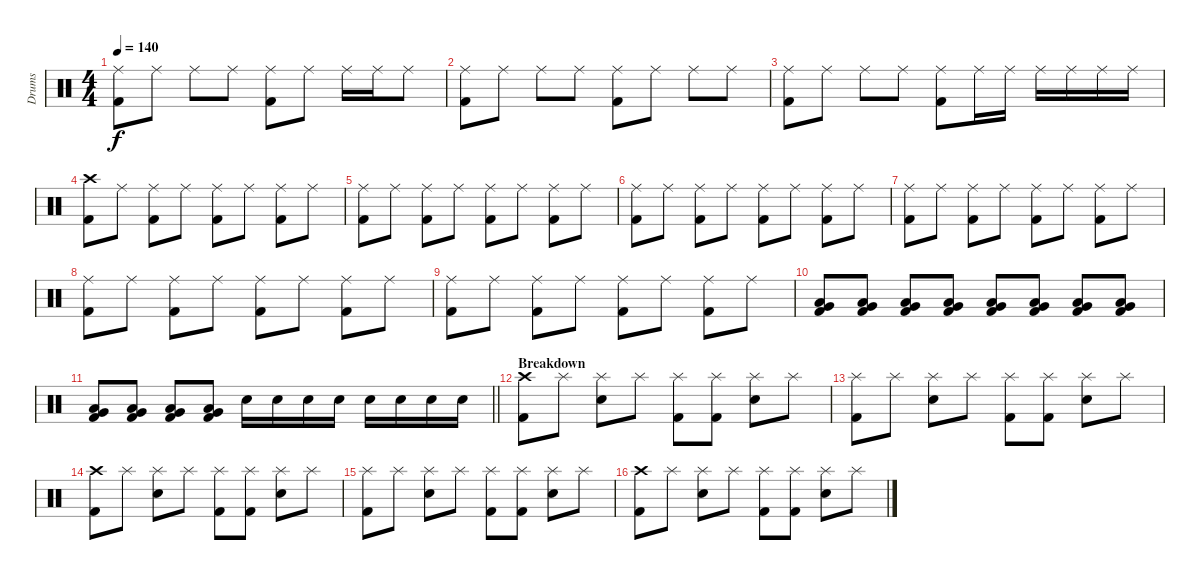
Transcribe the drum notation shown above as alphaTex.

\track ("Drums" "Drums") {instrument percussion}
\staff {score}
\articulation defaults
\ts (4 4)
\tempo 140
\clef neutral
\ks c
("Ride (middle)" "Kick (hit) 2").8{dy f} "Ride (middle)".8 "Ride (middle)".8 "Ride (middle)".8 ("Ride (middle)" "Kick (hit) 2").8 "Ride (middle)".8 "Ride (middle)".16 "Ride (middle)".16 "Ride (middle)".8 |
("Ride (middle)" "Kick (hit) 2").8 "Ride (middle)".8 "Ride (middle)".8 "Ride (middle)".8 ("Ride (middle)" "Kick (hit) 2").8 "Ride (middle)".8 "Ride (middle)".8 "Ride (middle)".8 |
("Ride (middle)" "Kick (hit) 2").8 "Ride (middle)".8 "Ride (middle)".8 "Ride (middle)".8 ("Ride (middle)" "Kick (hit) 2").8 "Ride (middle)".16 "Ride (middle)".16 "Ride (middle)".16 "Ride (middle)".16 "Ride (middle)".16 "Ride (middle)".16 |
("Crash high (hit)" "Kick (hit) 2").8 "Ride (middle)".8 ("Ride (middle)" "Kick (hit) 2").8 "Ride (middle)".8 ("Ride (middle)" "Kick (hit) 2").8 "Ride (middle)".8 ("Ride (middle)" "Kick (hit) 2").8 "Ride (middle)".8 |
("Ride (middle)" "Kick (hit) 2").8 "Ride (middle)".8 ("Ride (middle)" "Kick (hit) 2").8 "Ride (middle)".8 ("Ride (middle)" "Kick (hit) 2").8 "Ride (middle)".8 ("Ride (middle)" "Kick (hit) 2").8 "Ride (middle)".8 |
("Ride (middle)" "Kick (hit) 2").8 "Ride (middle)".8 ("Ride (middle)" "Kick (hit) 2").8 "Ride (middle)".8 ("Ride (middle)" "Kick (hit) 2").8 "Ride (middle)".8 ("Ride (middle)" "Kick (hit) 2").8 "Ride (middle)".8 |
("Ride (middle)" "Kick (hit) 2").8 "Ride (middle)".8 ("Ride (middle)" "Kick (hit) 2").8 "Ride (middle)".8 ("Ride (middle)" "Kick (hit) 2").8 "Ride (middle)".8 ("Ride (middle)" "Kick (hit) 2").8 "Ride (middle)".8 |
("Ride (middle)" "Kick (hit) 2").8 "Ride (middle)".8 ("Ride (middle)" "Kick (hit) 2").8 "Ride (middle)".8 ("Ride (middle)" "Kick (hit) 2").8 "Ride (middle)".8 ("Ride (middle)" "Kick (hit) 2").8 "Ride (middle)".8 |
("Ride (middle)" "Kick (hit) 2").8 "Ride (middle)".8 ("Ride (middle)" "Kick (hit) 2").8 "Ride (middle)".8 ("Ride (middle)" "Kick (hit) 2").8 "Ride (middle)".8 ("Ride (middle)" "Kick (hit) 2").8 "Ride (middle)".8 |
("Low Tom (hit)" "Very Low Tom (hit)" "Kick (hit) 2").8 ("Low Tom (hit)" "Very Low Tom (hit)" "Kick (hit) 2").8 ("Low Tom (hit)" "Very Low Tom (hit)" "Kick (hit) 2").8 ("Low Tom (hit)" "Very Low Tom (hit)" "Kick (hit) 2").8 ("Low Tom (hit)" "Very Low Tom (hit)" "Kick (hit) 2").8 ("Low Tom (hit)" "Very Low Tom (hit)" "Kick (hit) 2").8 ("Low Tom (hit)" "Very Low Tom (hit)" "Kick (hit) 2").8 ("Low Tom (hit)" "Very Low Tom (hit)" "Kick (hit) 2").8 |
\barLineRight lightlight
("Low Tom (hit)" "Very Low Tom (hit)" "Kick (hit) 2").8 ("Low Tom (hit)" "Very Low Tom (hit)" "Kick (hit) 2").8 ("Low Tom (hit)" "Very Low Tom (hit)" "Kick (hit) 2").8 ("Low Tom (hit)" "Very Low Tom (hit)" "Kick (hit) 2").8 "Snare (hit) 2".16 "Snare (hit) 2".16 "Snare (hit) 2".16 "Snare (hit) 2".16 "Snare (hit) 2".16 "Snare (hit) 2".16 "Snare (hit) 2".16 "Snare (hit) 2".16 |
\section ("" "Breakdown")
("Crash high (hit)" "Kick (hit) 2").8 "Splash (hit)".8 ("Splash (hit)" "Snare (hit) 2").8 "Splash (hit)".8 ("Splash (hit)" "Kick (hit) 2").8 ("Splash (hit)" "Kick (hit) 2").8 ("Splash (hit)" "Snare (hit) 2").8 "Splash (hit)".8 |
("Splash (hit)" "Kick (hit) 2").8 "Splash (hit)".8 ("Splash (hit)" "Snare (hit) 2").8 "Splash (hit)".8 ("Splash (hit)" "Kick (hit) 2").8 ("Splash (hit)" "Kick (hit) 2").8 ("Splash (hit)" "Snare (hit) 2").8 "Splash (hit)".8 |
("Crash high (hit)" "Kick (hit) 2").8 "Splash (hit)".8 ("Splash (hit)" "Snare (hit) 2").8 "Splash (hit)".8 ("Splash (hit)" "Kick (hit) 2").8 ("Splash (hit)" "Kick (hit) 2").8 ("Splash (hit)" "Snare (hit) 2").8 "Splash (hit)".8 |
("Splash (hit)" "Kick (hit) 2").8 "Splash (hit)".8 ("Splash (hit)" "Snare (hit) 2").8 "Splash (hit)".8 ("Splash (hit)" "Kick (hit) 2").8 ("Splash (hit)" "Kick (hit) 2").8 ("Splash (hit)" "Snare (hit) 2").8 "Splash (hit)".8 |
("Crash high (hit)" "Kick (hit) 2").8 "Splash (hit)".8 ("Splash (hit)" "Snare (hit) 2").8 "Splash (hit)".8 ("Splash (hit)" "Kick (hit) 2").8 ("Splash (hit)" "Kick (hit) 2").8 ("Splash (hit)" "Snare (hit) 2").8 "Splash (hit)".8
